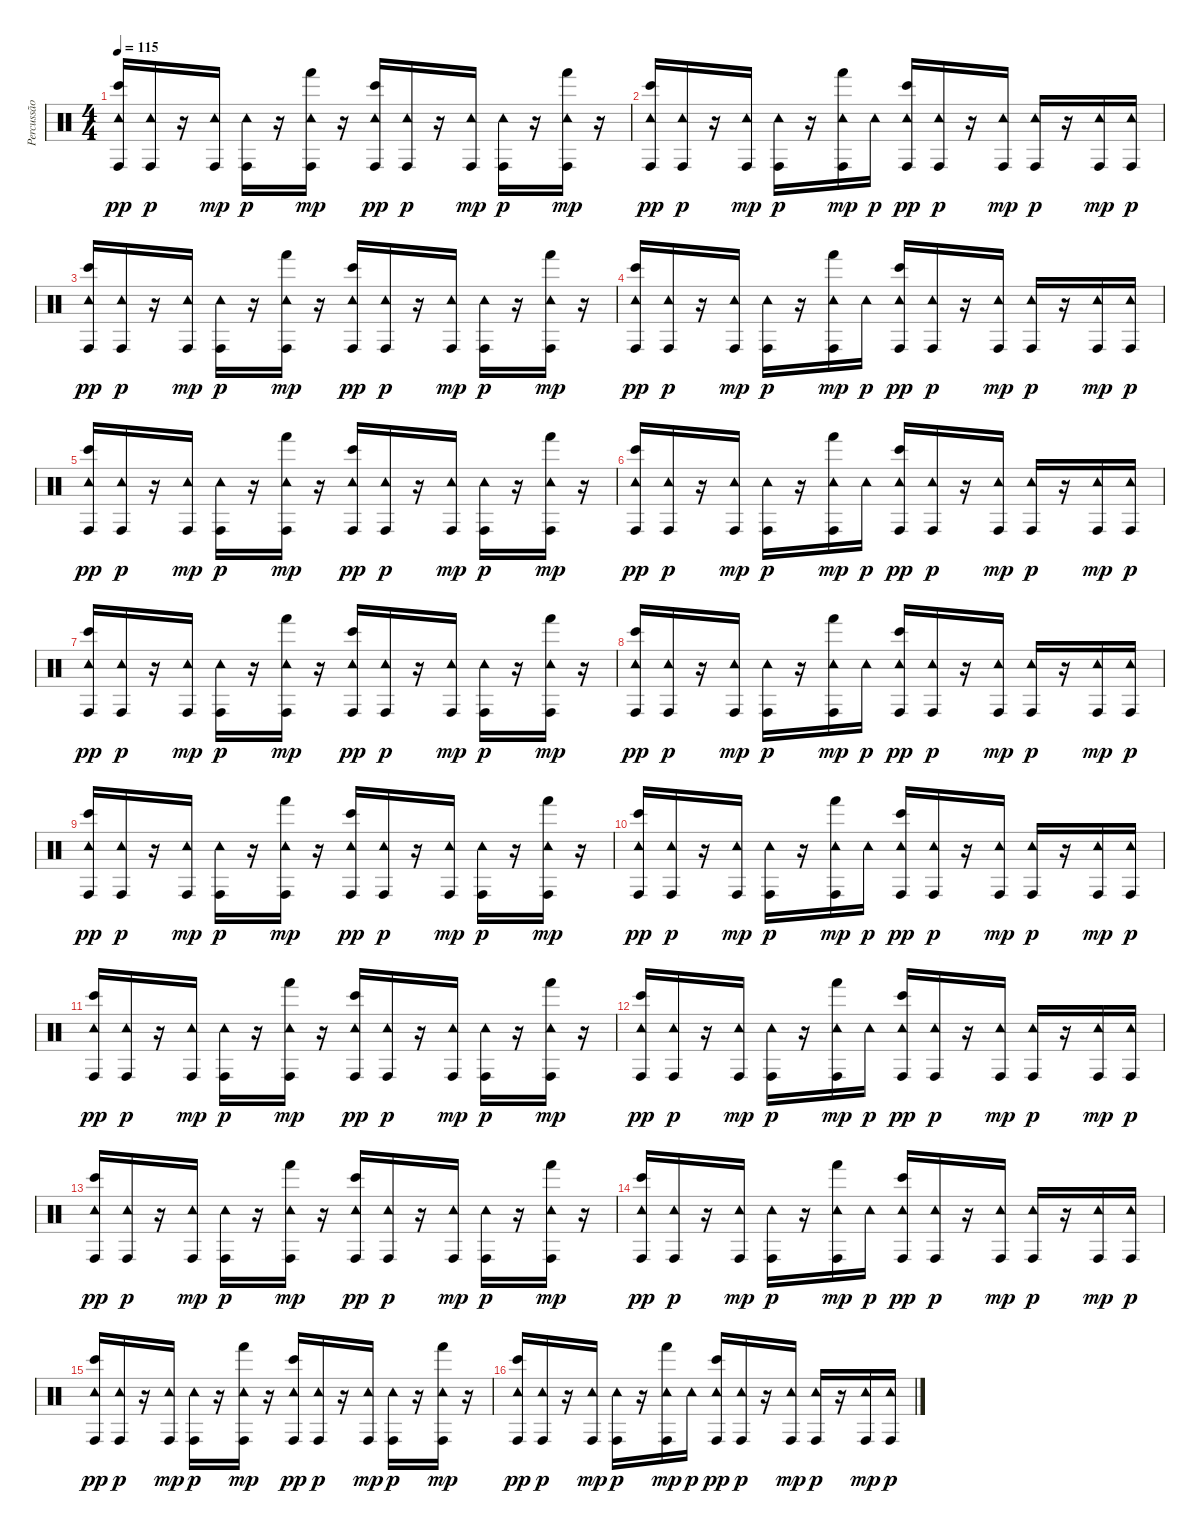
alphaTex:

\track ("Percussão" "Percussão") {instrument percussion}
\staff {score}
\articulation defaults
\ts (4 4)
\tempo 115
\clef neutral
\ks c
("Tambourine (hit)" "Conga high (hit)" "Bongo High (hit)").16{dy pp} ("Tambourine (hit)" "Conga high (hit)").16{dy p} r.16 ("Tambourine (hit)" "Conga high (hit)").16{dy mp} ("Tambourine (hit)" "Conga high (hit)").16{dy p} r.16 ("Tambourine (hit)" "Conga high (hit)" "Hand (hit)").16{dy mp} r.16 ("Tambourine (hit)" "Conga high (hit)" "Bongo High (hit)").16{dy pp} ("Tambourine (hit)" "Conga high (hit)").16{dy p} r.16 ("Tambourine (hit)" "Conga high (hit)").16{dy mp} ("Tambourine (hit)" "Conga high (hit)").16{dy p} r.16 ("Tambourine (hit)" "Conga high (hit)" "Hand (hit)").16{dy mp} r.16 |
("Tambourine (hit)" "Conga high (hit)" "Bongo High (hit)").16{dy pp} ("Tambourine (hit)" "Conga high (hit)").16{dy p} r.16 ("Tambourine (hit)" "Conga high (hit)").16{dy mp} ("Tambourine (hit)" "Conga high (hit)").16{dy p} r.16 ("Tambourine (hit)" "Conga high (hit)" "Hand (hit)").16{dy mp} "Tambourine (hit)".16{dy p} ("Tambourine (hit)" "Conga high (hit)" "Bongo High (hit)").16{dy pp} ("Tambourine (hit)" "Conga high (hit)").16{dy p} r.16 ("Tambourine (hit)" "Conga high (hit)").16{dy mp} ("Tambourine (hit)" "Conga high (hit)").16{dy p} r.16 ("Tambourine (hit)" "Conga high (hit)").16{dy mp} ("Tambourine (hit)" "Conga high (hit)").16{dy p} |
("Tambourine (hit)" "Conga high (hit)" "Bongo High (hit)").16{dy pp} ("Tambourine (hit)" "Conga high (hit)").16{dy p} r.16 ("Tambourine (hit)" "Conga high (hit)").16{dy mp} ("Tambourine (hit)" "Conga high (hit)").16{dy p} r.16 ("Tambourine (hit)" "Conga high (hit)" "Hand (hit)").16{dy mp} r.16 ("Tambourine (hit)" "Conga high (hit)" "Bongo High (hit)").16{dy pp} ("Tambourine (hit)" "Conga high (hit)").16{dy p} r.16 ("Tambourine (hit)" "Conga high (hit)").16{dy mp} ("Tambourine (hit)" "Conga high (hit)").16{dy p} r.16 ("Tambourine (hit)" "Conga high (hit)" "Hand (hit)").16{dy mp} r.16 |
("Tambourine (hit)" "Conga high (hit)" "Bongo High (hit)").16{dy pp} ("Tambourine (hit)" "Conga high (hit)").16{dy p} r.16 ("Tambourine (hit)" "Conga high (hit)").16{dy mp} ("Tambourine (hit)" "Conga high (hit)").16{dy p} r.16 ("Tambourine (hit)" "Conga high (hit)" "Hand (hit)").16{dy mp} "Tambourine (hit)".16{dy p} ("Tambourine (hit)" "Conga high (hit)" "Bongo High (hit)").16{dy pp} ("Tambourine (hit)" "Conga high (hit)").16{dy p} r.16 ("Tambourine (hit)" "Conga high (hit)").16{dy mp} ("Tambourine (hit)" "Conga high (hit)").16{dy p} r.16 ("Tambourine (hit)" "Conga high (hit)").16{dy mp} ("Tambourine (hit)" "Conga high (hit)").16{dy p} |
("Tambourine (hit)" "Conga high (hit)" "Bongo High (hit)").16{dy pp} ("Tambourine (hit)" "Conga high (hit)").16{dy p} r.16 ("Tambourine (hit)" "Conga high (hit)").16{dy mp} ("Tambourine (hit)" "Conga high (hit)").16{dy p} r.16 ("Tambourine (hit)" "Conga high (hit)" "Hand (hit)").16{dy mp} r.16 ("Tambourine (hit)" "Conga high (hit)" "Bongo High (hit)").16{dy pp} ("Tambourine (hit)" "Conga high (hit)").16{dy p} r.16 ("Tambourine (hit)" "Conga high (hit)").16{dy mp} ("Tambourine (hit)" "Conga high (hit)").16{dy p} r.16 ("Tambourine (hit)" "Conga high (hit)" "Hand (hit)").16{dy mp} r.16 |
("Tambourine (hit)" "Conga high (hit)" "Bongo High (hit)").16{dy pp} ("Tambourine (hit)" "Conga high (hit)").16{dy p} r.16 ("Tambourine (hit)" "Conga high (hit)").16{dy mp} ("Tambourine (hit)" "Conga high (hit)").16{dy p} r.16 ("Tambourine (hit)" "Conga high (hit)" "Hand (hit)").16{dy mp} "Tambourine (hit)".16{dy p} ("Tambourine (hit)" "Conga high (hit)" "Bongo High (hit)").16{dy pp} ("Tambourine (hit)" "Conga high (hit)").16{dy p} r.16 ("Tambourine (hit)" "Conga high (hit)").16{dy mp} ("Tambourine (hit)" "Conga high (hit)").16{dy p} r.16 ("Tambourine (hit)" "Conga high (hit)").16{dy mp} ("Tambourine (hit)" "Conga high (hit)").16{dy p} |
("Tambourine (hit)" "Conga high (hit)" "Bongo High (hit)").16{dy pp} ("Tambourine (hit)" "Conga high (hit)").16{dy p} r.16 ("Tambourine (hit)" "Conga high (hit)").16{dy mp} ("Tambourine (hit)" "Conga high (hit)").16{dy p} r.16 ("Tambourine (hit)" "Conga high (hit)" "Hand (hit)").16{dy mp} r.16 ("Tambourine (hit)" "Conga high (hit)" "Bongo High (hit)").16{dy pp} ("Tambourine (hit)" "Conga high (hit)").16{dy p} r.16 ("Tambourine (hit)" "Conga high (hit)").16{dy mp} ("Tambourine (hit)" "Conga high (hit)").16{dy p} r.16 ("Tambourine (hit)" "Conga high (hit)" "Hand (hit)").16{dy mp} r.16 |
("Tambourine (hit)" "Conga high (hit)" "Bongo High (hit)").16{dy pp} ("Tambourine (hit)" "Conga high (hit)").16{dy p} r.16 ("Tambourine (hit)" "Conga high (hit)").16{dy mp} ("Tambourine (hit)" "Conga high (hit)").16{dy p} r.16 ("Tambourine (hit)" "Conga high (hit)" "Hand (hit)").16{dy mp} "Tambourine (hit)".16{dy p} ("Tambourine (hit)" "Conga high (hit)" "Bongo High (hit)").16{dy pp} ("Tambourine (hit)" "Conga high (hit)").16{dy p} r.16 ("Tambourine (hit)" "Conga high (hit)").16{dy mp} ("Tambourine (hit)" "Conga high (hit)").16{dy p} r.16 ("Tambourine (hit)" "Conga high (hit)").16{dy mp} ("Tambourine (hit)" "Conga high (hit)").16{dy p} |
("Tambourine (hit)" "Conga high (hit)" "Bongo High (hit)").16{dy pp} ("Tambourine (hit)" "Conga high (hit)").16{dy p} r.16 ("Tambourine (hit)" "Conga high (hit)").16{dy mp} ("Tambourine (hit)" "Conga high (hit)").16{dy p} r.16 ("Tambourine (hit)" "Conga high (hit)" "Hand (hit)").16{dy mp} r.16 ("Tambourine (hit)" "Conga high (hit)" "Bongo High (hit)").16{dy pp} ("Tambourine (hit)" "Conga high (hit)").16{dy p} r.16 ("Tambourine (hit)" "Conga high (hit)").16{dy mp} ("Tambourine (hit)" "Conga high (hit)").16{dy p} r.16 ("Tambourine (hit)" "Conga high (hit)" "Hand (hit)").16{dy mp} r.16 |
("Tambourine (hit)" "Conga high (hit)" "Bongo High (hit)").16{dy pp} ("Tambourine (hit)" "Conga high (hit)").16{dy p} r.16 ("Tambourine (hit)" "Conga high (hit)").16{dy mp} ("Tambourine (hit)" "Conga high (hit)").16{dy p} r.16 ("Tambourine (hit)" "Conga high (hit)" "Hand (hit)").16{dy mp} "Tambourine (hit)".16{dy p} ("Tambourine (hit)" "Conga high (hit)" "Bongo High (hit)").16{dy pp} ("Tambourine (hit)" "Conga high (hit)").16{dy p} r.16 ("Tambourine (hit)" "Conga high (hit)").16{dy mp} ("Tambourine (hit)" "Conga high (hit)").16{dy p} r.16 ("Tambourine (hit)" "Conga high (hit)").16{dy mp} ("Tambourine (hit)" "Conga high (hit)").16{dy p} |
("Tambourine (hit)" "Conga high (hit)" "Bongo High (hit)").16{dy pp} ("Tambourine (hit)" "Conga high (hit)").16{dy p} r.16 ("Tambourine (hit)" "Conga high (hit)").16{dy mp} ("Tambourine (hit)" "Conga high (hit)").16{dy p} r.16 ("Tambourine (hit)" "Conga high (hit)" "Hand (hit)").16{dy mp} r.16 ("Tambourine (hit)" "Conga high (hit)" "Bongo High (hit)").16{dy pp} ("Tambourine (hit)" "Conga high (hit)").16{dy p} r.16 ("Tambourine (hit)" "Conga high (hit)").16{dy mp} ("Tambourine (hit)" "Conga high (hit)").16{dy p} r.16 ("Tambourine (hit)" "Conga high (hit)" "Hand (hit)").16{dy mp} r.16 |
("Tambourine (hit)" "Conga high (hit)" "Bongo High (hit)").16{dy pp} ("Tambourine (hit)" "Conga high (hit)").16{dy p} r.16 ("Tambourine (hit)" "Conga high (hit)").16{dy mp} ("Tambourine (hit)" "Conga high (hit)").16{dy p} r.16 ("Tambourine (hit)" "Conga high (hit)" "Hand (hit)").16{dy mp} "Tambourine (hit)".16{dy p} ("Tambourine (hit)" "Conga high (hit)" "Bongo High (hit)").16{dy pp} ("Tambourine (hit)" "Conga high (hit)").16{dy p} r.16 ("Tambourine (hit)" "Conga high (hit)").16{dy mp} ("Tambourine (hit)" "Conga high (hit)").16{dy p} r.16 ("Tambourine (hit)" "Conga high (hit)").16{dy mp} ("Tambourine (hit)" "Conga high (hit)").16{dy p} |
("Tambourine (hit)" "Conga high (hit)" "Bongo High (hit)").16{dy pp} ("Tambourine (hit)" "Conga high (hit)").16{dy p} r.16 ("Tambourine (hit)" "Conga high (hit)").16{dy mp} ("Tambourine (hit)" "Conga high (hit)").16{dy p} r.16 ("Tambourine (hit)" "Conga high (hit)" "Hand (hit)").16{dy mp} r.16 ("Tambourine (hit)" "Conga high (hit)" "Bongo High (hit)").16{dy pp} ("Tambourine (hit)" "Conga high (hit)").16{dy p} r.16 ("Tambourine (hit)" "Conga high (hit)").16{dy mp} ("Tambourine (hit)" "Conga high (hit)").16{dy p} r.16 ("Tambourine (hit)" "Conga high (hit)" "Hand (hit)").16{dy mp} r.16 |
("Tambourine (hit)" "Conga high (hit)" "Bongo High (hit)").16{dy pp} ("Tambourine (hit)" "Conga high (hit)").16{dy p} r.16 ("Tambourine (hit)" "Conga high (hit)").16{dy mp} ("Tambourine (hit)" "Conga high (hit)").16{dy p} r.16 ("Tambourine (hit)" "Conga high (hit)" "Hand (hit)").16{dy mp} "Tambourine (hit)".16{dy p} ("Tambourine (hit)" "Conga high (hit)" "Bongo High (hit)").16{dy pp} ("Tambourine (hit)" "Conga high (hit)").16{dy p} r.16 ("Tambourine (hit)" "Conga high (hit)").16{dy mp} ("Tambourine (hit)" "Conga high (hit)").16{dy p} r.16 ("Tambourine (hit)" "Conga high (hit)").16{dy mp} ("Tambourine (hit)" "Conga high (hit)").16{dy p} |
("Tambourine (hit)" "Conga high (hit)" "Bongo High (hit)").16{dy pp} ("Tambourine (hit)" "Conga high (hit)").16{dy p} r.16 ("Tambourine (hit)" "Conga high (hit)").16{dy mp} ("Tambourine (hit)" "Conga high (hit)").16{dy p} r.16 ("Tambourine (hit)" "Conga high (hit)" "Hand (hit)").16{dy mp} r.16 ("Tambourine (hit)" "Conga high (hit)" "Bongo High (hit)").16{dy pp} ("Tambourine (hit)" "Conga high (hit)").16{dy p} r.16 ("Tambourine (hit)" "Conga high (hit)").16{dy mp} ("Tambourine (hit)" "Conga high (hit)").16{dy p} r.16 ("Tambourine (hit)" "Conga high (hit)" "Hand (hit)").16{dy mp} r.16 |
("Tambourine (hit)" "Conga high (hit)" "Bongo High (hit)").16{dy pp} ("Tambourine (hit)" "Conga high (hit)").16{dy p} r.16 ("Tambourine (hit)" "Conga high (hit)").16{dy mp} ("Tambourine (hit)" "Conga high (hit)").16{dy p} r.16 ("Tambourine (hit)" "Conga high (hit)" "Hand (hit)").16{dy mp} "Tambourine (hit)".16{dy p} ("Tambourine (hit)" "Conga high (hit)" "Bongo High (hit)").16{dy pp} ("Tambourine (hit)" "Conga high (hit)").16{dy p} r.16 ("Tambourine (hit)" "Conga high (hit)").16{dy mp} ("Tambourine (hit)" "Conga high (hit)").16{dy p} r.16 ("Tambourine (hit)" "Conga high (hit)").16{dy mp} ("Tambourine (hit)" "Conga high (hit)").16{dy p}
